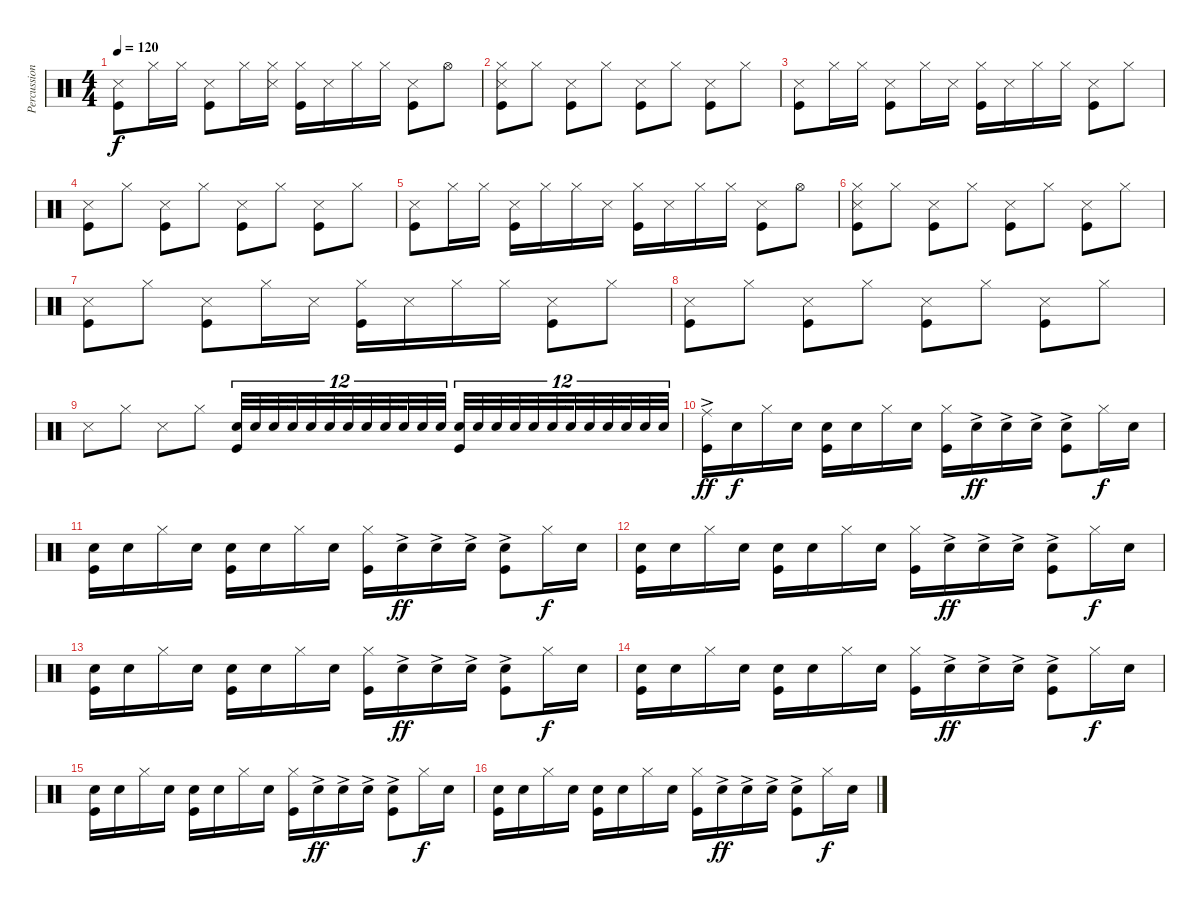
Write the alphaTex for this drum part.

\track ("Percussion" "Percussion") {instrument percussion}
\staff {score}
\articulation defaults
\ts (4 4)
\tempo 120
\clef neutral
\ks c
("Snare (side stick) 3" "Kick (hit)").8{dy f} "Hi-Hat (closed)".16 "Hi-Hat (closed)".16 ("Snare (side stick) 3" "Kick (hit)").8 "Hi-Hat (closed)".16 ("Hi-Hat (closed)" "Snare (side stick) 3").16 ("Hi-Hat (closed)" "Kick (hit)").16 "Snare (side stick) 3".16 "Hi-Hat (closed)".16 "Hi-Hat (closed)".16 ("Snare (side stick) 3" "Kick (hit)").8 "Hi-Hat (open)".8 |
("Hi-Hat (closed)" "Snare (side stick) 3" "Kick (hit)").8 "Hi-Hat (closed)".8 ("Snare (side stick) 3" "Kick (hit)").8 "Hi-Hat (closed)".8 ("Snare (side stick) 3" "Kick (hit)").8 "Hi-Hat (closed)".8 ("Snare (side stick) 3" "Kick (hit)").8 "Hi-Hat (closed)".8 |
("Snare (side stick) 3" "Kick (hit)").8 "Hi-Hat (closed)".16 "Hi-Hat (closed)".16 ("Snare (side stick) 3" "Kick (hit)").8 "Hi-Hat (closed)".16 "Snare (side stick) 3".16 ("Hi-Hat (closed)" "Kick (hit)").16 "Snare (side stick) 3".16 "Hi-Hat (closed)".16 "Hi-Hat (closed)".16 ("Snare (side stick) 3" "Kick (hit)").8 "Hi-Hat (closed)".8 |
("Snare (side stick) 3" "Kick (hit)").8 "Hi-Hat (closed)".8 ("Snare (side stick) 3" "Kick (hit)").8 "Hi-Hat (closed)".8 ("Snare (side stick) 3" "Kick (hit)").8 "Hi-Hat (closed)".8 ("Snare (side stick) 3" "Kick (hit)").8 "Hi-Hat (closed)".8 |
("Snare (side stick) 3" "Kick (hit)").8 "Hi-Hat (closed)".16 "Hi-Hat (closed)".16 ("Snare (side stick) 3" "Kick (hit)").16 "Hi-Hat (closed)".16 "Hi-Hat (closed)".16 "Snare (side stick) 3".16 ("Hi-Hat (closed)" "Kick (hit)").16 "Snare (side stick) 3".16 "Hi-Hat (closed)".16 "Hi-Hat (closed)".16 ("Snare (side stick) 3" "Kick (hit)").8 "Hi-Hat (open)".8 |
("Hi-Hat (closed)" "Snare (side stick) 3" "Kick (hit)").8 "Hi-Hat (closed)".8 ("Snare (side stick) 3" "Kick (hit)").8 "Hi-Hat (closed)".8 ("Snare (side stick) 3" "Kick (hit)").8 "Hi-Hat (closed)".8 ("Snare (side stick) 3" "Kick (hit)").8 "Hi-Hat (closed)".8 |
("Snare (side stick) 3" "Kick (hit)").8 "Hi-Hat (closed)".8 ("Snare (side stick) 3" "Kick (hit)").8 "Hi-Hat (closed)".16 "Snare (side stick) 3".16 ("Hi-Hat (closed)" "Kick (hit)").16 "Snare (side stick) 3".16 "Hi-Hat (closed)".16 "Hi-Hat (closed)".16 ("Snare (side stick) 3" "Kick (hit)").8 "Hi-Hat (closed)".8 |
("Snare (side stick) 3" "Kick (hit)").8 "Hi-Hat (closed)".8 ("Snare (side stick) 3" "Kick (hit)").8 "Hi-Hat (closed)".8 ("Snare (side stick) 3" "Kick (hit)").8 "Hi-Hat (closed)".8 ("Snare (side stick) 3" "Kick (hit)").8 "Hi-Hat (closed)".8 |
"Snare (side stick) 3".8 "Hi-Hat (closed)".8 "Snare (side stick) 3".8 "Hi-Hat (closed)".8 ("Snare (hit) 2" "Kick (hit)").32{tu (12 8)} "Snare (hit) 2".32{tu (12 8)} "Snare (hit) 2".32{tu (12 8) beam splitsecondary} "Snare (hit) 2".32{tu (12 8)} "Snare (hit) 2".32{tu (12 8)} "Snare (hit) 2".32{tu (12 8) beam splitsecondary} "Snare (hit) 2".32{tu (12 8)} "Snare (hit) 2".32{tu (12 8)} "Snare (hit) 2".32{tu (12 8) beam splitsecondary} "Snare (hit) 2".32{tu (12 8)} "Snare (hit) 2".32{tu (12 8)} "Snare (hit) 2".32{tu (12 8)} ("Snare (hit) 2" "Kick (hit)").32{tu (12 8)} "Snare (hit) 2".32{tu (12 8)} "Snare (hit) 2".32{tu (12 8) beam splitsecondary} "Snare (hit) 2".32{tu (12 8)} "Snare (hit) 2".32{tu (12 8)} "Snare (hit) 2".32{tu (12 8) beam splitsecondary} "Snare (hit) 2".32{tu (12 8)} "Snare (hit) 2".32{tu (12 8)} "Snare (hit) 2".32{tu (12 8) beam splitsecondary} "Snare (hit) 2".32{tu (12 8)} "Snare (hit) 2".32{tu (12 8)} "Snare (hit) 2".32{tu (12 8)} |
("Ride (middle)"{ac} "Kick (hit)").16{dy ff} "Snare (hit) 2".16{dy f} "Hi-Hat (closed)".16 "Snare (hit) 2".16 ("Snare (hit) 2" "Kick (hit)").16 "Snare (hit) 2".16 "Hi-Hat (closed)".16 "Snare (hit) 2".16 ("Hi-Hat (closed)" "Kick (hit)").16 "Snare (hit) 2"{ac}.16{dy ff} "Snare (hit) 2"{ac}.16 "Snare (hit) 2"{ac}.16 ("Snare (hit) 2"{ac} "Kick (hit)").8 "Hi-Hat (closed)".16{dy f} "Snare (hit) 2".16 |
("Snare (hit) 2" "Kick (hit)").16 "Snare (hit) 2".16 "Hi-Hat (closed)".16 "Snare (hit) 2".16 ("Snare (hit) 2" "Kick (hit)").16 "Snare (hit) 2".16 "Hi-Hat (closed)".16 "Snare (hit) 2".16 ("Hi-Hat (closed)" "Kick (hit)").16 "Snare (hit) 2"{ac}.16{dy ff} "Snare (hit) 2"{ac}.16 "Snare (hit) 2"{ac}.16 ("Snare (hit) 2"{ac} "Kick (hit)").8 "Hi-Hat (closed)".16{dy f} "Snare (hit) 2".16 |
("Snare (hit) 2" "Kick (hit)").16 "Snare (hit) 2".16 "Hi-Hat (closed)".16 "Snare (hit) 2".16 ("Snare (hit) 2" "Kick (hit)").16 "Snare (hit) 2".16 "Hi-Hat (closed)".16 "Snare (hit) 2".16 ("Hi-Hat (closed)" "Kick (hit)").16 "Snare (hit) 2"{ac}.16{dy ff} "Snare (hit) 2"{ac}.16 "Snare (hit) 2"{ac}.16 ("Snare (hit) 2"{ac} "Kick (hit)").8 "Hi-Hat (closed)".16{dy f} "Snare (hit) 2".16 |
("Snare (hit) 2" "Kick (hit)").16 "Snare (hit) 2".16 "Hi-Hat (closed)".16 "Snare (hit) 2".16 ("Snare (hit) 2" "Kick (hit)").16 "Snare (hit) 2".16 "Hi-Hat (closed)".16 "Snare (hit) 2".16 ("Hi-Hat (closed)" "Kick (hit)").16 "Snare (hit) 2"{ac}.16{dy ff} "Snare (hit) 2"{ac}.16 "Snare (hit) 2"{ac}.16 ("Snare (hit) 2"{ac} "Kick (hit)").8 "Hi-Hat (closed)".16{dy f} "Snare (hit) 2".16 |
("Snare (hit) 2" "Kick (hit)").16 "Snare (hit) 2".16 "Hi-Hat (closed)".16 "Snare (hit) 2".16 ("Snare (hit) 2" "Kick (hit)").16 "Snare (hit) 2".16 "Hi-Hat (closed)".16 "Snare (hit) 2".16 ("Hi-Hat (closed)" "Kick (hit)").16 "Snare (hit) 2"{ac}.16{dy ff} "Snare (hit) 2"{ac}.16 "Snare (hit) 2"{ac}.16 ("Snare (hit) 2"{ac} "Kick (hit)").8 "Hi-Hat (closed)".16{dy f} "Snare (hit) 2".16 |
("Snare (hit) 2" "Kick (hit)").16 "Snare (hit) 2".16 "Hi-Hat (closed)".16 "Snare (hit) 2".16 ("Snare (hit) 2" "Kick (hit)").16 "Snare (hit) 2".16 "Hi-Hat (closed)".16 "Snare (hit) 2".16 ("Hi-Hat (closed)" "Kick (hit)").16 "Snare (hit) 2"{ac}.16{dy ff} "Snare (hit) 2"{ac}.16 "Snare (hit) 2"{ac}.16 ("Snare (hit) 2"{ac} "Kick (hit)").8 "Hi-Hat (closed)".16{dy f} "Snare (hit) 2".16 |
("Snare (hit) 2" "Kick (hit)").16 "Snare (hit) 2".16 "Hi-Hat (closed)".16 "Snare (hit) 2".16 ("Snare (hit) 2" "Kick (hit)").16 "Snare (hit) 2".16 "Hi-Hat (closed)".16 "Snare (hit) 2".16 ("Hi-Hat (closed)" "Kick (hit)").16 "Snare (hit) 2"{ac}.16{dy ff} "Snare (hit) 2"{ac}.16 "Snare (hit) 2"{ac}.16 ("Snare (hit) 2"{ac} "Kick (hit)").8 "Hi-Hat (closed)".16{dy f} "Snare (hit) 2".16
